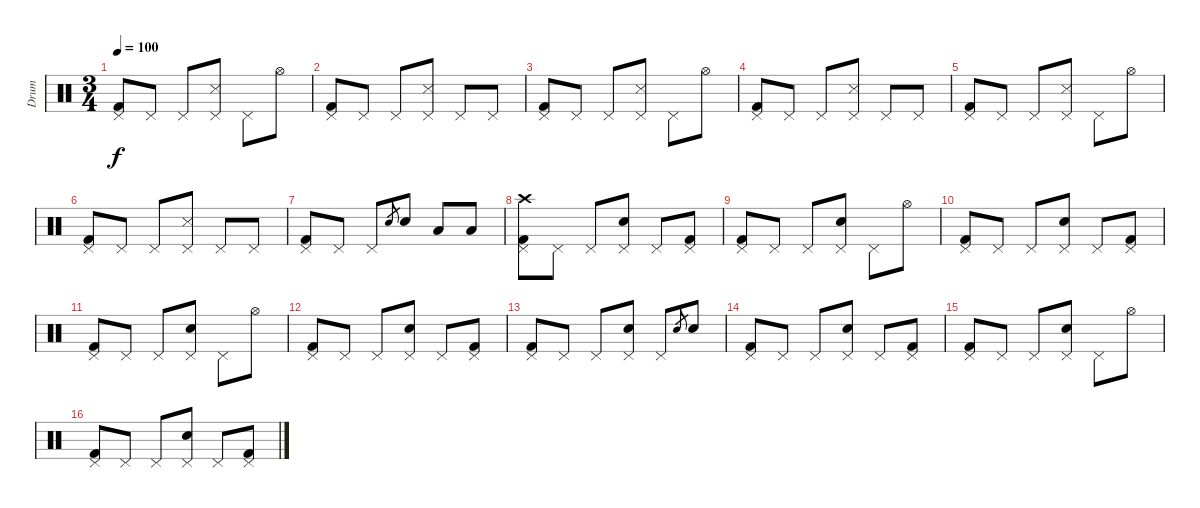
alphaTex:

\track ("Drum" "Drum") {instrument percussion}
\staff {score}
\articulation defaults
\ts (3 4)
\tempo 100
\clef neutral
\ks c
("Kick (hit) 2" "Pedal Hi-Hat (hit)").8{dy f} "Pedal Hi-Hat (hit)".8 "Pedal Hi-Hat (hit)".8 ("Snare (side stick) 3" "Pedal Hi-Hat (hit)").8 "Pedal Hi-Hat (hit)".8 "Hi-Hat (open)".8 |
("Kick (hit) 2" "Pedal Hi-Hat (hit)").8 "Pedal Hi-Hat (hit)".8 "Pedal Hi-Hat (hit)".8 ("Snare (side stick) 3" "Pedal Hi-Hat (hit)").8 "Pedal Hi-Hat (hit)".8 "Pedal Hi-Hat (hit)".8 |
("Kick (hit) 2" "Pedal Hi-Hat (hit)").8 "Pedal Hi-Hat (hit)".8 "Pedal Hi-Hat (hit)".8 ("Snare (side stick) 3" "Pedal Hi-Hat (hit)").8 "Pedal Hi-Hat (hit)".8 "Hi-Hat (open)".8 |
("Kick (hit) 2" "Pedal Hi-Hat (hit)").8 "Pedal Hi-Hat (hit)".8 "Pedal Hi-Hat (hit)".8 ("Snare (side stick) 3" "Pedal Hi-Hat (hit)").8 "Pedal Hi-Hat (hit)".8 "Pedal Hi-Hat (hit)".8 |
("Kick (hit) 2" "Pedal Hi-Hat (hit)").8 "Pedal Hi-Hat (hit)".8 "Pedal Hi-Hat (hit)".8 ("Snare (side stick) 3" "Pedal Hi-Hat (hit)").8 "Pedal Hi-Hat (hit)".8 "Hi-Hat (open)".8 |
("Kick (hit) 2" "Pedal Hi-Hat (hit)").8 "Pedal Hi-Hat (hit)".8 "Pedal Hi-Hat (hit)".8 ("Snare (side stick) 3" "Pedal Hi-Hat (hit)").8 "Pedal Hi-Hat (hit)".8 "Pedal Hi-Hat (hit)".8 |
("Kick (hit) 2" "Pedal Hi-Hat (hit)").8 "Pedal Hi-Hat (hit)".8 "Pedal Hi-Hat (hit)".8 "Snare (hit) 2".8{gr} "Snare (hit) 2".8 "Low Tom (hit)".8 "Low Tom (hit)".8 |
("Kick (hit) 2" "Pedal Hi-Hat (hit)" "Crash high (hit)").8 "Pedal Hi-Hat (hit)".8 "Pedal Hi-Hat (hit)".8 ("Snare (hit) 2" "Pedal Hi-Hat (hit)").8 "Pedal Hi-Hat (hit)".8 ("Kick (hit) 2" "Pedal Hi-Hat (hit)").8 |
("Kick (hit) 2" "Pedal Hi-Hat (hit)").8 "Pedal Hi-Hat (hit)".8 "Pedal Hi-Hat (hit)".8 ("Snare (hit) 2" "Pedal Hi-Hat (hit)").8 "Pedal Hi-Hat (hit)".8 "Hi-Hat (open)".8 |
("Kick (hit) 2" "Pedal Hi-Hat (hit)").8 "Pedal Hi-Hat (hit)".8 "Pedal Hi-Hat (hit)".8 ("Snare (hit) 2" "Pedal Hi-Hat (hit)").8 "Pedal Hi-Hat (hit)".8 ("Kick (hit) 2" "Pedal Hi-Hat (hit)").8 |
("Kick (hit) 2" "Pedal Hi-Hat (hit)").8 "Pedal Hi-Hat (hit)".8 "Pedal Hi-Hat (hit)".8 ("Snare (hit) 2" "Pedal Hi-Hat (hit)").8 "Pedal Hi-Hat (hit)".8 "Hi-Hat (open)".8 |
("Kick (hit) 2" "Pedal Hi-Hat (hit)").8 "Pedal Hi-Hat (hit)".8 "Pedal Hi-Hat (hit)".8 ("Snare (hit) 2" "Pedal Hi-Hat (hit)").8 "Pedal Hi-Hat (hit)".8 ("Kick (hit) 2" "Pedal Hi-Hat (hit)").8 |
("Kick (hit) 2" "Pedal Hi-Hat (hit)").8 "Pedal Hi-Hat (hit)".8 "Pedal Hi-Hat (hit)".8 ("Snare (hit) 2" "Pedal Hi-Hat (hit)").8 "Pedal Hi-Hat (hit)".8 "Snare (hit) 2".8{gr} "Snare (hit) 2".8 |
("Kick (hit) 2" "Pedal Hi-Hat (hit)").8 "Pedal Hi-Hat (hit)".8 "Pedal Hi-Hat (hit)".8 ("Snare (hit) 2" "Pedal Hi-Hat (hit)").8 "Pedal Hi-Hat (hit)".8 ("Kick (hit) 2" "Pedal Hi-Hat (hit)").8 |
("Kick (hit) 2" "Pedal Hi-Hat (hit)").8 "Pedal Hi-Hat (hit)".8 "Pedal Hi-Hat (hit)".8 ("Snare (hit) 2" "Pedal Hi-Hat (hit)").8 "Pedal Hi-Hat (hit)".8 "Hi-Hat (open)".8 |
("Kick (hit) 2" "Pedal Hi-Hat (hit)").8 "Pedal Hi-Hat (hit)".8 "Pedal Hi-Hat (hit)".8 ("Snare (hit) 2" "Pedal Hi-Hat (hit)").8 "Pedal Hi-Hat (hit)".8 ("Kick (hit) 2" "Pedal Hi-Hat (hit)").8
